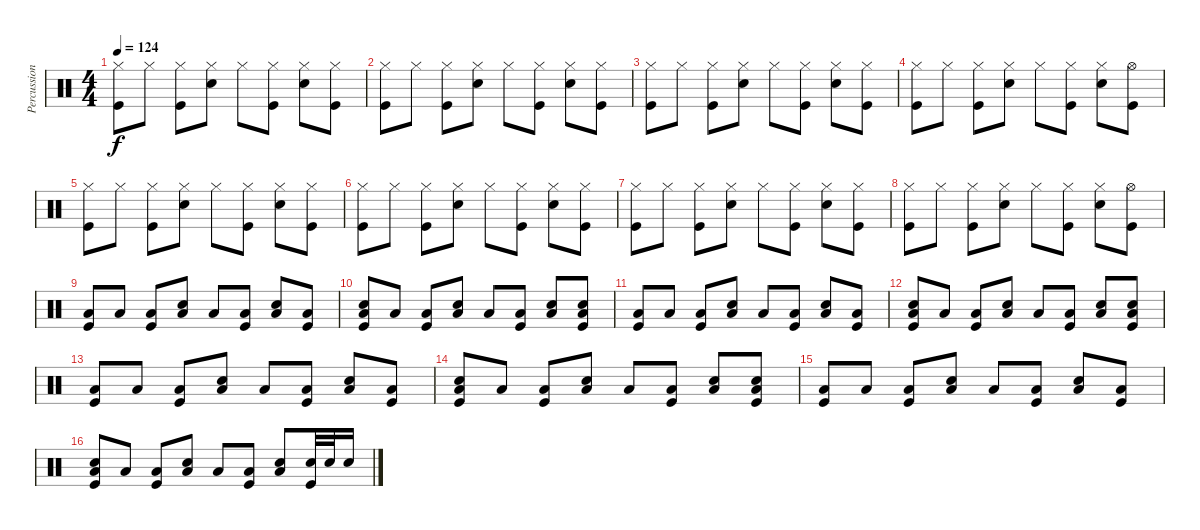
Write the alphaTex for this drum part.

\track ("Percussion" "Percussion") {instrument percussion}
\staff {score}
\articulation defaults
\ts (4 4)
\tempo 124
\clef neutral
\ks c
("Hi-Hat (closed)" "Kick (hit)").8{dy f} "Hi-Hat (closed)".8 ("Hi-Hat (closed)" "Kick (hit)").8 ("Hi-Hat (closed)" "Snare (hit) 2").8 "Hi-Hat (closed)".8 ("Hi-Hat (closed)" "Kick (hit)").8 ("Hi-Hat (closed)" "Snare (hit) 2").8 ("Hi-Hat (closed)" "Kick (hit)").8 |
("Hi-Hat (closed)" "Kick (hit)").8 "Hi-Hat (closed)".8 ("Hi-Hat (closed)" "Kick (hit)").8 ("Hi-Hat (closed)" "Snare (hit) 2").8 "Hi-Hat (closed)".8 ("Hi-Hat (closed)" "Kick (hit)").8 ("Hi-Hat (closed)" "Snare (hit) 2").8 ("Hi-Hat (closed)" "Kick (hit)").8 |
("Hi-Hat (closed)" "Kick (hit)").8 "Hi-Hat (closed)".8 ("Hi-Hat (closed)" "Kick (hit)").8 ("Hi-Hat (closed)" "Snare (hit) 2").8 "Hi-Hat (closed)".8 ("Hi-Hat (closed)" "Kick (hit)").8 ("Hi-Hat (closed)" "Snare (hit) 2").8 ("Hi-Hat (closed)" "Kick (hit)").8 |
("Hi-Hat (closed)" "Kick (hit)").8 "Hi-Hat (closed)".8 ("Hi-Hat (closed)" "Kick (hit)").8 ("Hi-Hat (closed)" "Snare (hit) 2").8 "Hi-Hat (closed)".8 ("Hi-Hat (closed)" "Kick (hit)").8 ("Hi-Hat (closed)" "Snare (hit) 2").8 ("Hi-Hat (open)" "Kick (hit)").8 |
("Hi-Hat (closed)" "Kick (hit)").8 "Hi-Hat (closed)".8 ("Hi-Hat (closed)" "Kick (hit)").8 ("Hi-Hat (closed)" "Snare (hit) 2").8 "Hi-Hat (closed)".8 ("Hi-Hat (closed)" "Kick (hit)").8 ("Hi-Hat (closed)" "Snare (hit) 2").8 ("Hi-Hat (closed)" "Kick (hit)").8 |
("Hi-Hat (closed)" "Kick (hit)").8 "Hi-Hat (closed)".8 ("Hi-Hat (closed)" "Kick (hit)").8 ("Hi-Hat (closed)" "Snare (hit) 2").8 "Hi-Hat (closed)".8 ("Hi-Hat (closed)" "Kick (hit)").8 ("Hi-Hat (closed)" "Snare (hit) 2").8 ("Hi-Hat (closed)" "Kick (hit)").8 |
("Hi-Hat (closed)" "Kick (hit)").8 "Hi-Hat (closed)".8 ("Hi-Hat (closed)" "Kick (hit)").8 ("Hi-Hat (closed)" "Snare (hit) 2").8 "Hi-Hat (closed)".8 ("Hi-Hat (closed)" "Kick (hit)").8 ("Hi-Hat (closed)" "Snare (hit) 2").8 ("Hi-Hat (closed)" "Kick (hit)").8 |
("Hi-Hat (closed)" "Kick (hit)").8 "Hi-Hat (closed)".8 ("Hi-Hat (closed)" "Kick (hit)").8 ("Hi-Hat (closed)" "Snare (hit) 2").8 "Hi-Hat (closed)".8 ("Hi-Hat (closed)" "Kick (hit)").8 ("Hi-Hat (closed)" "Snare (hit) 2").8 ("Hi-Hat (open)" "Kick (hit)").8 |
("Low Floor Tom (hit)" "Kick (hit)").8 "Low Floor Tom (hit)".8 ("Low Floor Tom (hit)" "Kick (hit)").8 ("Low Floor Tom (hit)" "Snare (hit) 2").8 "Low Floor Tom (hit)".8 ("Low Floor Tom (hit)" "Kick (hit)").8 ("Low Floor Tom (hit)" "Snare (hit) 2").8 ("Low Floor Tom (hit)" "Kick (hit)").8 |
("Low Floor Tom (hit)" "Snare (hit) 2" "Kick (hit)").8 "Low Floor Tom (hit)".8 ("Low Floor Tom (hit)" "Kick (hit)").8 ("Low Floor Tom (hit)" "Snare (hit) 2").8 "Low Floor Tom (hit)".8 ("Low Floor Tom (hit)" "Kick (hit)").8 ("Low Floor Tom (hit)" "Snare (hit) 2").8 ("Low Floor Tom (hit)" "Snare (hit) 2" "Kick (hit)").8 |
("Low Floor Tom (hit)" "Kick (hit)").8 "Low Floor Tom (hit)".8 ("Low Floor Tom (hit)" "Kick (hit)").8 ("Low Floor Tom (hit)" "Snare (hit) 2").8 "Low Floor Tom (hit)".8 ("Low Floor Tom (hit)" "Kick (hit)").8 ("Low Floor Tom (hit)" "Snare (hit) 2").8 ("Low Floor Tom (hit)" "Kick (hit)").8 |
("Low Floor Tom (hit)" "Snare (hit) 2" "Kick (hit)").8 "Low Floor Tom (hit)".8 ("Low Floor Tom (hit)" "Kick (hit)").8 ("Low Floor Tom (hit)" "Snare (hit) 2").8 "Low Floor Tom (hit)".8 ("Low Floor Tom (hit)" "Kick (hit)").8 ("Low Floor Tom (hit)" "Snare (hit) 2").8 ("Low Floor Tom (hit)" "Snare (hit) 2" "Kick (hit)").8 |
("Low Floor Tom (hit)" "Kick (hit)").8 "Low Floor Tom (hit)".8 ("Low Floor Tom (hit)" "Kick (hit)").8 ("Low Floor Tom (hit)" "Snare (hit) 2").8 "Low Floor Tom (hit)".8 ("Low Floor Tom (hit)" "Kick (hit)").8 ("Low Floor Tom (hit)" "Snare (hit) 2").8 ("Low Floor Tom (hit)" "Kick (hit)").8 |
("Low Floor Tom (hit)" "Snare (hit) 2" "Kick (hit)").8 "Low Floor Tom (hit)".8 ("Low Floor Tom (hit)" "Kick (hit)").8 ("Low Floor Tom (hit)" "Snare (hit) 2").8 "Low Floor Tom (hit)".8 ("Low Floor Tom (hit)" "Kick (hit)").8 ("Low Floor Tom (hit)" "Snare (hit) 2").8 ("Low Floor Tom (hit)" "Snare (hit) 2" "Kick (hit)").8 |
("Low Floor Tom (hit)" "Kick (hit)").8 "Low Floor Tom (hit)".8 ("Low Floor Tom (hit)" "Kick (hit)").8 ("Low Floor Tom (hit)" "Snare (hit) 2").8 "Low Floor Tom (hit)".8 ("Low Floor Tom (hit)" "Kick (hit)").8 ("Low Floor Tom (hit)" "Snare (hit) 2").8 ("Low Floor Tom (hit)" "Kick (hit)").8 |
("Low Floor Tom (hit)" "Snare (hit) 2" "Kick (hit)").8 "Low Floor Tom (hit)".8 ("Low Floor Tom (hit)" "Kick (hit)").8 ("Low Floor Tom (hit)" "Snare (hit) 2").8 "Low Floor Tom (hit)".8 ("Low Floor Tom (hit)" "Kick (hit)").8 ("Low Floor Tom (hit)" "Snare (hit) 2").8 ("Snare (hit) 2" "Kick (hit)").32 "Snare (hit) 2".32 "Snare (hit) 2".16
